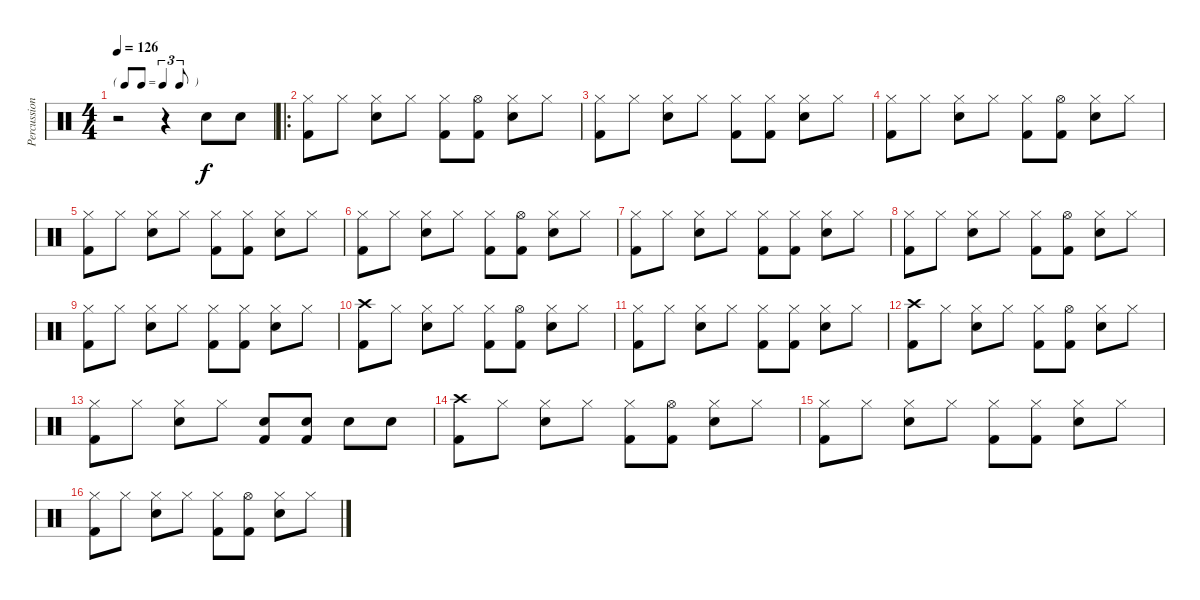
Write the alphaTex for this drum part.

\track ("Percussion" "Percussion") {instrument percussion}
\staff {score}
\articulation defaults
\ts (4 4)
\tf triplet8th
\tempo 126
\clef neutral
\ks c
r.2{dy f} r.4 "Electric Snare (hit)".8 "Electric Snare (hit)".8 |
\ro
("Hi-Hat (closed)" "Kick (hit) 2").8 "Hi-Hat (closed)".8 ("Hi-Hat (closed)" "Electric Snare (hit)").8 "Hi-Hat (closed)".8 ("Hi-Hat (closed)" "Kick (hit) 2").8 ("Hi-Hat (open)" "Kick (hit) 2").8 ("Hi-Hat (closed)" "Electric Snare (hit)").8 "Hi-Hat (closed)".8 |
("Hi-Hat (closed)" "Kick (hit) 2").8 "Hi-Hat (closed)".8 ("Hi-Hat (closed)" "Electric Snare (hit)").8 "Hi-Hat (closed)".8 ("Hi-Hat (closed)" "Kick (hit) 2").8 ("Hi-Hat (closed)" "Kick (hit) 2").8 ("Hi-Hat (closed)" "Electric Snare (hit)").8 "Hi-Hat (closed)".8 |
("Hi-Hat (closed)" "Kick (hit) 2").8 "Hi-Hat (closed)".8 ("Hi-Hat (closed)" "Electric Snare (hit)").8 "Hi-Hat (closed)".8 ("Hi-Hat (closed)" "Kick (hit) 2").8 ("Hi-Hat (open)" "Kick (hit) 2").8 ("Hi-Hat (closed)" "Electric Snare (hit)").8 "Hi-Hat (closed)".8 |
("Hi-Hat (closed)" "Kick (hit) 2").8 "Hi-Hat (closed)".8 ("Hi-Hat (closed)" "Electric Snare (hit)").8 "Hi-Hat (closed)".8 ("Hi-Hat (closed)" "Kick (hit) 2").8 ("Hi-Hat (closed)" "Kick (hit) 2").8 ("Hi-Hat (closed)" "Electric Snare (hit)").8 "Hi-Hat (closed)".8 |
("Hi-Hat (closed)" "Kick (hit) 2").8 "Hi-Hat (closed)".8 ("Hi-Hat (closed)" "Electric Snare (hit)").8 "Hi-Hat (closed)".8 ("Hi-Hat (closed)" "Kick (hit) 2").8 ("Hi-Hat (open)" "Kick (hit) 2").8 ("Hi-Hat (closed)" "Electric Snare (hit)").8 "Hi-Hat (closed)".8 |
("Hi-Hat (closed)" "Kick (hit) 2").8 "Hi-Hat (closed)".8 ("Hi-Hat (closed)" "Electric Snare (hit)").8 "Hi-Hat (closed)".8 ("Hi-Hat (closed)" "Kick (hit) 2").8 ("Hi-Hat (closed)" "Kick (hit) 2").8 ("Hi-Hat (closed)" "Electric Snare (hit)").8 "Hi-Hat (closed)".8 |
("Hi-Hat (closed)" "Kick (hit) 2").8 "Hi-Hat (closed)".8 ("Hi-Hat (closed)" "Electric Snare (hit)").8 "Hi-Hat (closed)".8 ("Hi-Hat (closed)" "Kick (hit) 2").8 ("Hi-Hat (open)" "Kick (hit) 2").8 ("Hi-Hat (closed)" "Electric Snare (hit)").8 "Hi-Hat (closed)".8 |
("Hi-Hat (closed)" "Kick (hit) 2").8 "Hi-Hat (closed)".8 ("Hi-Hat (closed)" "Electric Snare (hit)").8 "Hi-Hat (closed)".8 ("Hi-Hat (closed)" "Kick (hit) 2").8 ("Hi-Hat (closed)" "Kick (hit) 2").8 ("Hi-Hat (closed)" "Electric Snare (hit)").8 "Hi-Hat (closed)".8 |
("Crash high (hit)" "Kick (hit) 2").8 "Hi-Hat (closed)".8 ("Hi-Hat (closed)" "Electric Snare (hit)").8 "Hi-Hat (closed)".8 ("Hi-Hat (closed)" "Kick (hit) 2").8 ("Hi-Hat (open)" "Kick (hit) 2").8 ("Hi-Hat (closed)" "Electric Snare (hit)").8 "Hi-Hat (closed)".8 |
("Hi-Hat (closed)" "Kick (hit) 2").8 "Hi-Hat (closed)".8 ("Hi-Hat (closed)" "Electric Snare (hit)").8 "Hi-Hat (closed)".8 ("Hi-Hat (closed)" "Kick (hit) 2").8 ("Hi-Hat (closed)" "Kick (hit) 2").8 ("Hi-Hat (closed)" "Electric Snare (hit)").8 "Hi-Hat (closed)".8 |
("Crash high (hit)" "Kick (hit) 2").8 "Hi-Hat (closed)".8 ("Hi-Hat (closed)" "Electric Snare (hit)").8 "Hi-Hat (closed)".8 ("Hi-Hat (closed)" "Kick (hit) 2").8 ("Hi-Hat (open)" "Kick (hit) 2").8 ("Hi-Hat (closed)" "Electric Snare (hit)").8 "Hi-Hat (closed)".8 |
("Hi-Hat (closed)" "Kick (hit) 2").8 "Hi-Hat (closed)".8 ("Hi-Hat (closed)" "Electric Snare (hit)").8 "Hi-Hat (closed)".8 ("Electric Snare (hit)" "Kick (hit) 2").8 ("Electric Snare (hit)" "Kick (hit) 2").8 "Electric Snare (hit)".8 "Electric Snare (hit)".8 |
("Crash high (hit)" "Kick (hit) 2").8 "Hi-Hat (closed)".8 ("Hi-Hat (closed)" "Electric Snare (hit)").8 "Hi-Hat (closed)".8 ("Hi-Hat (closed)" "Kick (hit) 2").8 ("Hi-Hat (open)" "Kick (hit) 2").8 ("Hi-Hat (closed)" "Electric Snare (hit)").8 "Hi-Hat (closed)".8 |
("Hi-Hat (closed)" "Kick (hit) 2").8 "Hi-Hat (closed)".8 ("Hi-Hat (closed)" "Electric Snare (hit)").8 "Hi-Hat (closed)".8 ("Hi-Hat (closed)" "Kick (hit) 2").8 ("Hi-Hat (closed)" "Kick (hit) 2").8 ("Hi-Hat (closed)" "Electric Snare (hit)").8 "Hi-Hat (closed)".8 |
("Hi-Hat (closed)" "Kick (hit) 2").8 "Hi-Hat (closed)".8 ("Hi-Hat (closed)" "Electric Snare (hit)").8 "Hi-Hat (closed)".8 ("Hi-Hat (closed)" "Kick (hit) 2").8 ("Hi-Hat (open)" "Kick (hit) 2").8 ("Hi-Hat (closed)" "Electric Snare (hit)").8 "Hi-Hat (closed)".8
